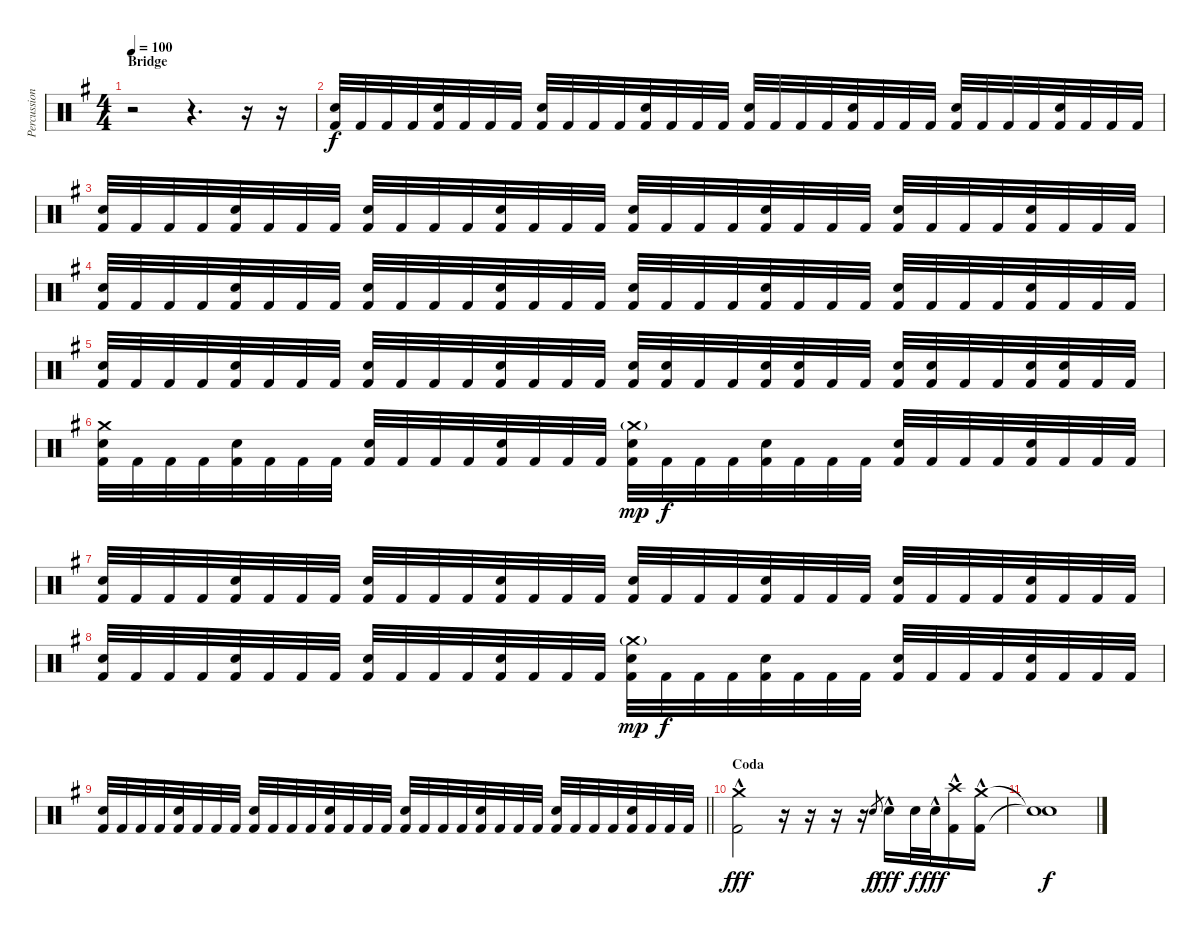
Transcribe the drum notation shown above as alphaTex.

\track ("Percussion" "Percussion") {instrument percussion}
\staff {score}
\articulation defaults
\ts (4 4)
\section ("" "Bridge")
\tempo 100
\clef neutral
\ks eminor
r.2{dy f} r.4{d} r.16 r.16 |
("Snare (hit) 2" "Kick (hit) 2").32 "Kick (hit) 2".32 "Kick (hit) 2".32 "Kick (hit) 2".32 ("Snare (hit) 2" "Kick (hit) 2").32 "Kick (hit) 2".32 "Kick (hit) 2".32 "Kick (hit) 2".32 ("Snare (hit) 2" "Kick (hit) 2").32 "Kick (hit) 2".32 "Kick (hit) 2".32 "Kick (hit) 2".32 ("Snare (hit) 2" "Kick (hit) 2").32 "Kick (hit) 2".32 "Kick (hit) 2".32 "Kick (hit) 2".32 ("Snare (hit) 2" "Kick (hit) 2").32 "Kick (hit) 2".32 "Kick (hit) 2".32 "Kick (hit) 2".32 ("Snare (hit) 2" "Kick (hit) 2").32 "Kick (hit) 2".32 "Kick (hit) 2".32 "Kick (hit) 2".32 ("Snare (hit) 2" "Kick (hit) 2").32 "Kick (hit) 2".32 "Kick (hit) 2".32 "Kick (hit) 2".32 ("Snare (hit) 2" "Kick (hit) 2").32 "Kick (hit) 2".32 "Kick (hit) 2".32 "Kick (hit) 2".32 |
("Snare (hit) 2" "Kick (hit) 2").32 "Kick (hit) 2".32 "Kick (hit) 2".32 "Kick (hit) 2".32 ("Snare (hit) 2" "Kick (hit) 2").32 "Kick (hit) 2".32 "Kick (hit) 2".32 "Kick (hit) 2".32 ("Snare (hit) 2" "Kick (hit) 2").32 "Kick (hit) 2".32 "Kick (hit) 2".32 "Kick (hit) 2".32 ("Snare (hit) 2" "Kick (hit) 2").32 "Kick (hit) 2".32 "Kick (hit) 2".32 "Kick (hit) 2".32 ("Snare (hit) 2" "Kick (hit) 2").32 "Kick (hit) 2".32 "Kick (hit) 2".32 "Kick (hit) 2".32 ("Snare (hit) 2" "Kick (hit) 2").32 "Kick (hit) 2".32 "Kick (hit) 2".32 "Kick (hit) 2".32 ("Snare (hit) 2" "Kick (hit) 2").32 "Kick (hit) 2".32 "Kick (hit) 2".32 "Kick (hit) 2".32 ("Snare (hit) 2" "Kick (hit) 2").32 "Kick (hit) 2".32 "Kick (hit) 2".32 "Kick (hit) 2".32 |
("Snare (hit) 2" "Kick (hit) 2").32 "Kick (hit) 2".32 "Kick (hit) 2".32 "Kick (hit) 2".32 ("Snare (hit) 2" "Kick (hit) 2").32 "Kick (hit) 2".32 "Kick (hit) 2".32 "Kick (hit) 2".32 ("Snare (hit) 2" "Kick (hit) 2").32 "Kick (hit) 2".32 "Kick (hit) 2".32 "Kick (hit) 2".32 ("Snare (hit) 2" "Kick (hit) 2").32 "Kick (hit) 2".32 "Kick (hit) 2".32 "Kick (hit) 2".32 ("Snare (hit) 2" "Kick (hit) 2").32 "Kick (hit) 2".32 "Kick (hit) 2".32 "Kick (hit) 2".32 ("Snare (hit) 2" "Kick (hit) 2").32 "Kick (hit) 2".32 "Kick (hit) 2".32 "Kick (hit) 2".32 ("Snare (hit) 2" "Kick (hit) 2").32 "Kick (hit) 2".32 "Kick (hit) 2".32 "Kick (hit) 2".32 ("Snare (hit) 2" "Kick (hit) 2").32 "Kick (hit) 2".32 "Kick (hit) 2".32 "Kick (hit) 2".32 |
("Snare (hit) 2" "Kick (hit) 2").32 "Kick (hit) 2".32 "Kick (hit) 2".32 "Kick (hit) 2".32 ("Snare (hit) 2" "Kick (hit) 2").32 "Kick (hit) 2".32 "Kick (hit) 2".32 "Kick (hit) 2".32 ("Snare (hit) 2" "Kick (hit) 2").32 "Kick (hit) 2".32 "Kick (hit) 2".32 "Kick (hit) 2".32 ("Snare (hit) 2" "Kick (hit) 2").32 "Kick (hit) 2".32 "Kick (hit) 2".32 "Kick (hit) 2".32 ("Snare (hit) 2" "Kick (hit) 2").32 ("Snare (hit) 2" "Kick (hit) 2").32 "Kick (hit) 2".32 "Kick (hit) 2".32 ("Snare (hit) 2" "Kick (hit) 2").32 ("Snare (hit) 2" "Kick (hit) 2").32 "Kick (hit) 2".32 "Kick (hit) 2".32 ("Snare (hit) 2" "Kick (hit) 2").32 ("Snare (hit) 2" "Kick (hit) 2").32 "Kick (hit) 2".32 "Kick (hit) 2".32 ("Snare (hit) 2" "Kick (hit) 2").32 ("Snare (hit) 2" "Kick (hit) 2").32 "Kick (hit) 2".32 "Kick (hit) 2".32 |
("Crash medium (hit)" "Snare (hit) 2" "Kick (hit) 2").32 "Kick (hit) 2".32 "Kick (hit) 2".32 "Kick (hit) 2".32 ("Snare (hit) 2" "Kick (hit) 2").32 "Kick (hit) 2".32 "Kick (hit) 2".32 "Kick (hit) 2".32 ("Snare (hit) 2" "Kick (hit) 2").32 "Kick (hit) 2".32 "Kick (hit) 2".32 "Kick (hit) 2".32 ("Snare (hit) 2" "Kick (hit) 2").32 "Kick (hit) 2".32 "Kick (hit) 2".32 "Kick (hit) 2".32 ("Crash medium (hit)"{g} "Snare (hit) 2" "Kick (hit) 2").32{dy mp} "Kick (hit) 2".32{dy f} "Kick (hit) 2".32 "Kick (hit) 2".32 ("Snare (hit) 2" "Kick (hit) 2").32 "Kick (hit) 2".32 "Kick (hit) 2".32 "Kick (hit) 2".32 ("Snare (hit) 2" "Kick (hit) 2").32 "Kick (hit) 2".32 "Kick (hit) 2".32 "Kick (hit) 2".32 ("Snare (hit) 2" "Kick (hit) 2").32 "Kick (hit) 2".32 "Kick (hit) 2".32 "Kick (hit) 2".32 |
("Snare (hit) 2" "Kick (hit) 2").32 "Kick (hit) 2".32 "Kick (hit) 2".32 "Kick (hit) 2".32 ("Snare (hit) 2" "Kick (hit) 2").32 "Kick (hit) 2".32 "Kick (hit) 2".32 "Kick (hit) 2".32 ("Snare (hit) 2" "Kick (hit) 2").32 "Kick (hit) 2".32 "Kick (hit) 2".32 "Kick (hit) 2".32 ("Snare (hit) 2" "Kick (hit) 2").32 "Kick (hit) 2".32 "Kick (hit) 2".32 "Kick (hit) 2".32 ("Snare (hit) 2" "Kick (hit) 2").32 "Kick (hit) 2".32 "Kick (hit) 2".32 "Kick (hit) 2".32 ("Snare (hit) 2" "Kick (hit) 2").32 "Kick (hit) 2".32 "Kick (hit) 2".32 "Kick (hit) 2".32 ("Snare (hit) 2" "Kick (hit) 2").32 "Kick (hit) 2".32 "Kick (hit) 2".32 "Kick (hit) 2".32 ("Snare (hit) 2" "Kick (hit) 2").32 "Kick (hit) 2".32 "Kick (hit) 2".32 "Kick (hit) 2".32 |
("Snare (hit) 2" "Kick (hit) 2").32 "Kick (hit) 2".32 "Kick (hit) 2".32 "Kick (hit) 2".32 ("Snare (hit) 2" "Kick (hit) 2").32 "Kick (hit) 2".32 "Kick (hit) 2".32 "Kick (hit) 2".32 ("Snare (hit) 2" "Kick (hit) 2").32 "Kick (hit) 2".32 "Kick (hit) 2".32 "Kick (hit) 2".32 ("Snare (hit) 2" "Kick (hit) 2").32 "Kick (hit) 2".32 "Kick (hit) 2".32 "Kick (hit) 2".32 ("Crash medium (hit)"{g} "Snare (hit) 2" "Kick (hit) 2").32{dy mp} "Kick (hit) 2".32{dy f} "Kick (hit) 2".32 "Kick (hit) 2".32 ("Snare (hit) 2" "Kick (hit) 2").32 "Kick (hit) 2".32 "Kick (hit) 2".32 "Kick (hit) 2".32 ("Snare (hit) 2" "Kick (hit) 2").32 "Kick (hit) 2".32 "Kick (hit) 2".32 "Kick (hit) 2".32 ("Snare (hit) 2" "Kick (hit) 2").32 "Kick (hit) 2".32 "Kick (hit) 2".32 "Kick (hit) 2".32 |
\barLineRight lightlight
("Snare (hit) 2" "Kick (hit) 2").32 "Kick (hit) 2".32 "Kick (hit) 2".32 "Kick (hit) 2".32 ("Snare (hit) 2" "Kick (hit) 2").32 "Kick (hit) 2".32 "Kick (hit) 2".32 "Kick (hit) 2".32 ("Snare (hit) 2" "Kick (hit) 2").32 "Kick (hit) 2".32 "Kick (hit) 2".32 "Kick (hit) 2".32 ("Snare (hit) 2" "Kick (hit) 2").32 "Kick (hit) 2".32 "Kick (hit) 2".32 "Kick (hit) 2".32 ("Snare (hit) 2" "Kick (hit) 2").32 "Kick (hit) 2".32 "Kick (hit) 2".32 "Kick (hit) 2".32 ("Snare (hit) 2" "Kick (hit) 2").32 "Kick (hit) 2".32 "Kick (hit) 2".32 "Kick (hit) 2".32 ("Snare (hit) 2" "Kick (hit) 2").32 "Kick (hit) 2".32 "Kick (hit) 2".32 "Kick (hit) 2".32 ("Snare (hit) 2" "Kick (hit) 2").32 "Kick (hit) 2".32 "Kick (hit) 2".32 "Kick (hit) 2".32 |
\section ("" "Coda")
("Crash medium (hit)"{hac} "Kick (hit) 2"{hac}).2{dy fff} r.16 r.16 r.16 r.16 "Snare (hit) 2".8{gr dy f} "Snare (hit) 2"{hac}.16{dy fff} "Snare (hit) 2".32{dy f} "Snare (hit) 2"{hac}.32{dy fff} ("Crash high (hit)" "Kick (hit) 2"{hac}).16 ("Crash medium (hit)"{hac} "Kick (hit) 2"{hac}).16 |
("Snare (hit)"{t} "Snare (hit)"{t}).1{dy f}
